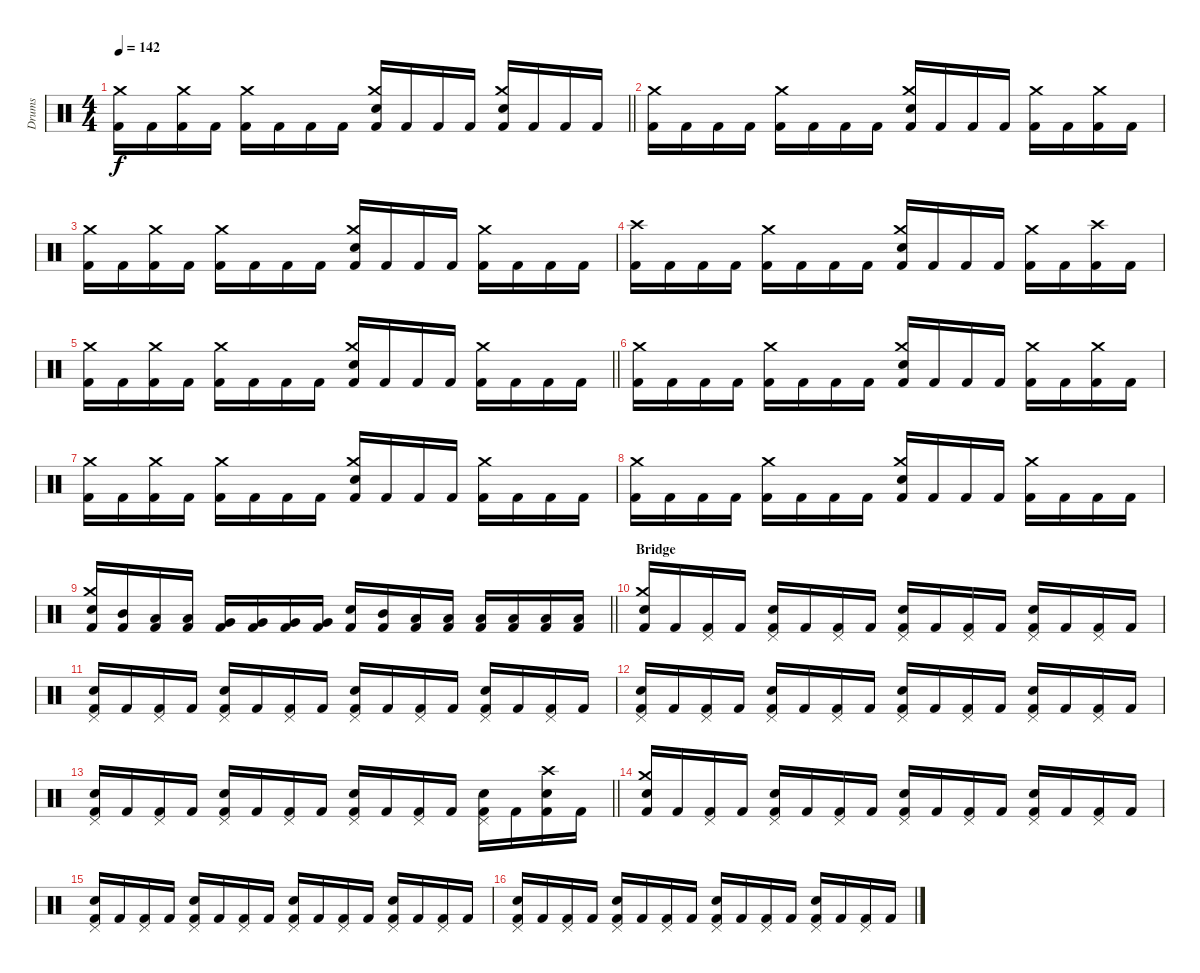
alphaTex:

\track ("Drums" "Drums") {instrument percussion}
\staff {score}
\articulation defaults
\ts (4 4)
\tempo 142
\clef neutral
\barLineRight lightlight
\ks c
("Kick (hit) 2" "Crash medium (hit)").16{dy f} "Kick (hit) 2".16 ("Kick (hit) 2" "Crash medium (hit)").16 "Kick (hit) 2".16 ("Kick (hit) 2" "Crash medium (hit)").16 "Kick (hit) 2".16 "Kick (hit) 2".16 "Kick (hit) 2".16 ("Kick (hit) 2" "Snare (hit) 2" "Crash medium (hit)").16 "Kick (hit) 2".16 "Kick (hit) 2".16 "Kick (hit) 2".16 ("Kick (hit) 2" "Snare (hit) 2" "Crash medium (hit)").16 "Kick (hit) 2".16 "Kick (hit) 2".16 "Kick (hit) 2".16 |
\section ("" "")
("Kick (hit) 2" "Crash medium (hit)").16 "Kick (hit) 2".16 "Kick (hit) 2".16 "Kick (hit) 2".16 ("Kick (hit) 2" "Crash medium (hit)").16 "Kick (hit) 2".16 "Kick (hit) 2".16 "Kick (hit) 2".16 ("Kick (hit) 2" "Snare (hit) 2" "Crash medium (hit)").16 "Kick (hit) 2".16 "Kick (hit) 2".16 "Kick (hit) 2".16 ("Kick (hit) 2" "Crash medium (hit)").16 "Kick (hit) 2".16 ("Kick (hit) 2" "Crash medium (hit)").16 "Kick (hit) 2".16 |
("Kick (hit) 2" "Crash medium (hit)").16 "Kick (hit) 2".16 ("Kick (hit) 2" "Crash medium (hit)").16 "Kick (hit) 2".16 ("Kick (hit) 2" "Crash medium (hit)").16 "Kick (hit) 2".16 "Kick (hit) 2".16 "Kick (hit) 2".16 ("Kick (hit) 2" "Snare (hit) 2" "Crash medium (hit)").16 "Kick (hit) 2".16 "Kick (hit) 2".16 "Kick (hit) 2".16 ("Kick (hit) 2" "Crash medium (hit)").16 "Kick (hit) 2".16 "Kick (hit) 2".16 "Kick (hit) 2".16 |
("Kick (hit) 2" "Crash high (hit)").16 "Kick (hit) 2".16 "Kick (hit) 2".16 "Kick (hit) 2".16 ("Kick (hit) 2" "Crash medium (hit)").16 "Kick (hit) 2".16 "Kick (hit) 2".16 "Kick (hit) 2".16 ("Kick (hit) 2" "Snare (hit) 2" "Crash medium (hit)").16 "Kick (hit) 2".16 "Kick (hit) 2".16 "Kick (hit) 2".16 ("Kick (hit) 2" "Crash medium (hit)").16 "Kick (hit) 2".16 ("Kick (hit) 2" "Crash high (hit)").16 "Kick (hit) 2".16 |
\barLineRight lightlight
("Kick (hit) 2" "Crash medium (hit)").16 "Kick (hit) 2".16 ("Kick (hit) 2" "Crash medium (hit)").16 "Kick (hit) 2".16 ("Kick (hit) 2" "Crash medium (hit)").16 "Kick (hit) 2".16 "Kick (hit) 2".16 "Kick (hit) 2".16 ("Kick (hit) 2" "Snare (hit) 2" "Crash medium (hit)").16 "Kick (hit) 2".16 "Kick (hit) 2".16 "Kick (hit) 2".16 ("Kick (hit) 2" "Crash medium (hit)").16 "Kick (hit) 2".16 "Kick (hit) 2".16 "Kick (hit) 2".16 |
\section ("" "")
("Kick (hit) 2" "Crash medium (hit)").16 "Kick (hit) 2".16 "Kick (hit) 2".16 "Kick (hit) 2".16 ("Kick (hit) 2" "Crash medium (hit)").16 "Kick (hit) 2".16 "Kick (hit) 2".16 "Kick (hit) 2".16 ("Kick (hit) 2" "Snare (hit) 2" "Crash medium (hit)").16 "Kick (hit) 2".16 "Kick (hit) 2".16 "Kick (hit) 2".16 ("Kick (hit) 2" "Crash medium (hit)").16 "Kick (hit) 2".16 ("Kick (hit) 2" "Crash medium (hit)").16 "Kick (hit) 2".16 |
("Kick (hit) 2" "Crash medium (hit)").16 "Kick (hit) 2".16 ("Kick (hit) 2" "Crash medium (hit)").16 "Kick (hit) 2".16 ("Kick (hit) 2" "Crash medium (hit)").16 "Kick (hit) 2".16 "Kick (hit) 2".16 "Kick (hit) 2".16 ("Kick (hit) 2" "Snare (hit) 2" "Crash medium (hit)").16 "Kick (hit) 2".16 "Kick (hit) 2".16 "Kick (hit) 2".16 ("Kick (hit) 2" "Crash medium (hit)").16 "Kick (hit) 2".16 "Kick (hit) 2".16 "Kick (hit) 2".16 |
("Kick (hit) 2" "Crash medium (hit)").16 "Kick (hit) 2".16 "Kick (hit) 2".16 "Kick (hit) 2".16 ("Kick (hit) 2" "Crash medium (hit)").16 "Kick (hit) 2".16 "Kick (hit) 2".16 "Kick (hit) 2".16 ("Kick (hit) 2" "Snare (hit) 2" "Crash medium (hit)").16 "Kick (hit) 2".16 "Kick (hit) 2".16 "Kick (hit) 2".16 ("Kick (hit) 2" "Crash medium (hit)").16 "Kick (hit) 2".16 "Kick (hit) 2".16 "Kick (hit) 2".16 |
\barLineRight lightlight
("Kick (hit) 2" "Snare (hit) 2" "Crash medium (hit)").16 ("Kick (hit) 2" "Mid Tom (hit)").16 ("Kick (hit) 2" "Low Tom (hit)").16 ("Kick (hit) 2" "Low Tom (hit)").16 ("Kick (hit) 2" "Very Low Tom (hit)").16 ("Kick (hit) 2" "Very Low Tom (hit)").16 ("Kick (hit) 2" "Very Low Tom (hit)").16 ("Kick (hit) 2" "Very Low Tom (hit)").16 ("Kick (hit) 2" "Snare (hit) 2").16 ("Kick (hit) 2" "Mid Tom (hit)").16 ("Kick (hit) 2" "Low Tom (hit)").16 ("Kick (hit) 2" "Low Tom (hit)").16 ("Kick (hit) 2" "Low Floor Tom (hit)").16 ("Kick (hit) 2" "Low Floor Tom (hit)").16 ("Kick (hit) 2" "Low Floor Tom (hit)").16 ("Kick (hit) 2" "Low Floor Tom (hit)").16 |
\section ("" "Bridge")
("Kick (hit) 2" "Snare (hit) 2" "Crash medium (hit)").16 "Kick (hit) 2".16 ("Kick (hit) 2" "Pedal Hi-Hat (hit)").16 "Kick (hit) 2".16 ("Kick (hit) 2" "Snare (hit) 2" "Pedal Hi-Hat (hit)").16 "Kick (hit) 2".16 ("Kick (hit) 2" "Pedal Hi-Hat (hit)").16 "Kick (hit) 2".16 ("Kick (hit) 2" "Snare (hit) 2" "Pedal Hi-Hat (hit)").16 "Kick (hit) 2".16 ("Kick (hit) 2" "Pedal Hi-Hat (hit)").16 "Kick (hit) 2".16 ("Kick (hit) 2" "Snare (hit) 2" "Pedal Hi-Hat (hit)").16 "Kick (hit) 2".16 ("Kick (hit) 2" "Pedal Hi-Hat (hit)").16 "Kick (hit) 2".16 |
("Kick (hit) 2" "Snare (hit) 2" "Pedal Hi-Hat (hit)").16 "Kick (hit) 2".16 ("Kick (hit) 2" "Pedal Hi-Hat (hit)").16 "Kick (hit) 2".16 ("Kick (hit) 2" "Snare (hit) 2" "Pedal Hi-Hat (hit)").16 "Kick (hit) 2".16 ("Kick (hit) 2" "Pedal Hi-Hat (hit)").16 "Kick (hit) 2".16 ("Kick (hit) 2" "Snare (hit) 2" "Pedal Hi-Hat (hit)").16 "Kick (hit) 2".16 ("Kick (hit) 2" "Pedal Hi-Hat (hit)").16 "Kick (hit) 2".16 ("Kick (hit) 2" "Snare (hit) 2" "Pedal Hi-Hat (hit)").16 "Kick (hit) 2".16 ("Kick (hit) 2" "Pedal Hi-Hat (hit)").16 "Kick (hit) 2".16 |
("Kick (hit) 2" "Snare (hit) 2" "Pedal Hi-Hat (hit)").16 "Kick (hit) 2".16 ("Kick (hit) 2" "Pedal Hi-Hat (hit)").16 "Kick (hit) 2".16 ("Kick (hit) 2" "Snare (hit) 2" "Pedal Hi-Hat (hit)").16 "Kick (hit) 2".16 ("Kick (hit) 2" "Pedal Hi-Hat (hit)").16 "Kick (hit) 2".16 ("Kick (hit) 2" "Snare (hit) 2" "Pedal Hi-Hat (hit)").16 "Kick (hit) 2".16 ("Kick (hit) 2" "Pedal Hi-Hat (hit)").16 "Kick (hit) 2".16 ("Kick (hit) 2" "Snare (hit) 2" "Pedal Hi-Hat (hit)").16 "Kick (hit) 2".16 ("Kick (hit) 2" "Pedal Hi-Hat (hit)").16 "Kick (hit) 2".16 |
\barLineRight lightlight
("Kick (hit) 2" "Snare (hit) 2" "Pedal Hi-Hat (hit)").16 "Kick (hit) 2".16 ("Kick (hit) 2" "Pedal Hi-Hat (hit)").16 "Kick (hit) 2".16 ("Kick (hit) 2" "Snare (hit) 2" "Pedal Hi-Hat (hit)").16 "Kick (hit) 2".16 ("Kick (hit) 2" "Pedal Hi-Hat (hit)").16 "Kick (hit) 2".16 ("Kick (hit) 2" "Snare (hit) 2" "Pedal Hi-Hat (hit)").16 "Kick (hit) 2".16 ("Kick (hit) 2" "Pedal Hi-Hat (hit)").16 "Kick (hit) 2".16 ("Kick (hit) 2" "Snare (hit) 2" "Pedal Hi-Hat (hit)").16 "Kick (hit) 2".16 ("Kick (hit) 2" "Snare (hit) 2" "Crash high (hit)").16 "Kick (hit) 2".16 |
\section ("" "")
("Kick (hit) 2" "Snare (hit) 2" "Crash medium (hit)").16 "Kick (hit) 2".16 ("Kick (hit) 2" "Pedal Hi-Hat (hit)").16 "Kick (hit) 2".16 ("Kick (hit) 2" "Snare (hit) 2" "Pedal Hi-Hat (hit)").16 "Kick (hit) 2".16 ("Kick (hit) 2" "Pedal Hi-Hat (hit)").16 "Kick (hit) 2".16 ("Kick (hit) 2" "Snare (hit) 2" "Pedal Hi-Hat (hit)").16 "Kick (hit) 2".16 ("Kick (hit) 2" "Pedal Hi-Hat (hit)").16 "Kick (hit) 2".16 ("Kick (hit) 2" "Snare (hit) 2" "Pedal Hi-Hat (hit)").16 "Kick (hit) 2".16 ("Kick (hit) 2" "Pedal Hi-Hat (hit)").16 "Kick (hit) 2".16 |
("Kick (hit) 2" "Snare (hit) 2" "Pedal Hi-Hat (hit)").16 "Kick (hit) 2".16 ("Kick (hit) 2" "Pedal Hi-Hat (hit)").16 "Kick (hit) 2".16 ("Kick (hit) 2" "Snare (hit) 2" "Pedal Hi-Hat (hit)").16 "Kick (hit) 2".16 ("Kick (hit) 2" "Pedal Hi-Hat (hit)").16 "Kick (hit) 2".16 ("Kick (hit) 2" "Snare (hit) 2" "Pedal Hi-Hat (hit)").16 "Kick (hit) 2".16 ("Kick (hit) 2" "Pedal Hi-Hat (hit)").16 "Kick (hit) 2".16 ("Kick (hit) 2" "Snare (hit) 2" "Pedal Hi-Hat (hit)").16 "Kick (hit) 2".16 ("Kick (hit) 2" "Pedal Hi-Hat (hit)").16 "Kick (hit) 2".16 |
("Kick (hit) 2" "Snare (hit) 2" "Pedal Hi-Hat (hit)").16 "Kick (hit) 2".16 ("Kick (hit) 2" "Pedal Hi-Hat (hit)").16 "Kick (hit) 2".16 ("Kick (hit) 2" "Snare (hit) 2" "Pedal Hi-Hat (hit)").16 "Kick (hit) 2".16 ("Kick (hit) 2" "Pedal Hi-Hat (hit)").16 "Kick (hit) 2".16 ("Kick (hit) 2" "Snare (hit) 2" "Pedal Hi-Hat (hit)").16 "Kick (hit) 2".16 ("Kick (hit) 2" "Pedal Hi-Hat (hit)").16 "Kick (hit) 2".16 ("Kick (hit) 2" "Snare (hit) 2" "Pedal Hi-Hat (hit)").16 "Kick (hit) 2".16 ("Kick (hit) 2" "Pedal Hi-Hat (hit)").16 "Kick (hit) 2".16
